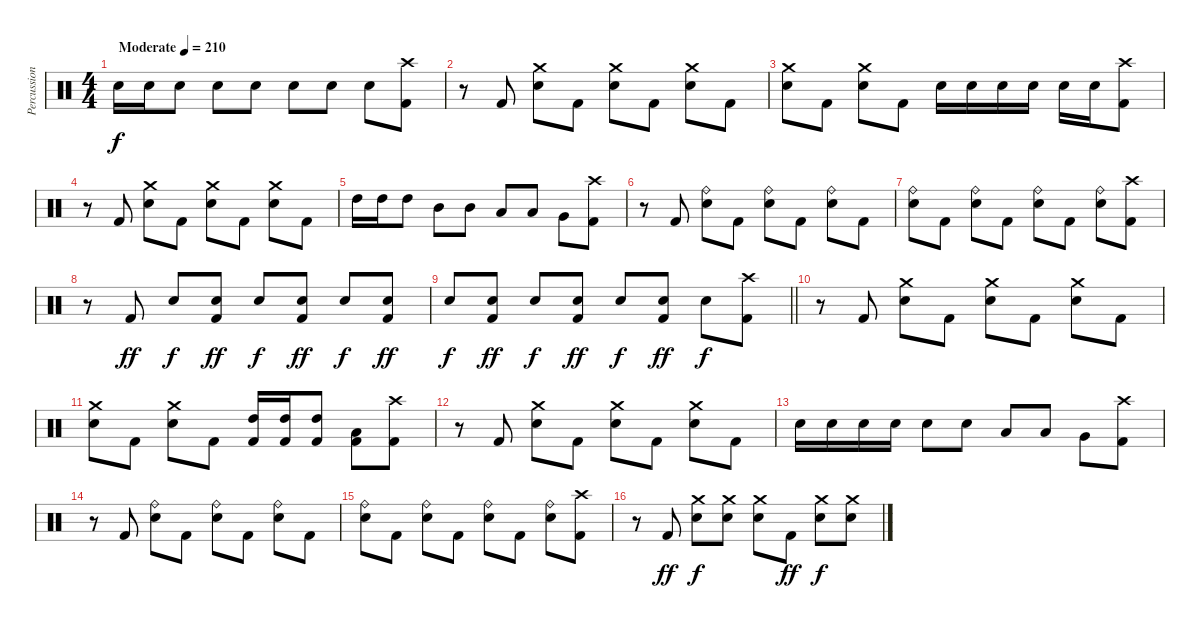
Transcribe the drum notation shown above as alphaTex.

\track ("Percussion" "Percussion") {instrument percussion}
\staff {score}
\articulation defaults
\ts (4 4)
\tempo (210 "Moderate")
\clef neutral
\ks c "Snare (hit) 2".16{dy f volume 7} "Snare (hit) 2".16 "Snare (hit) 2".8 "Snare (hit) 2".8 "Snare (hit) 2".8 "Snare (hit) 2".8 "Snare (hit) 2".8 "Snare (hit) 2".8
("Crash high (hit)" "Kick (hit) 2").8 |
r.8 "Kick (hit) 2".8 ("Crash medium (hit)" "Snare (hit) 2").8 "Kick (hit) 2".8 ("Crash medium (hit)" "Snare (hit) 2").8 "Kick (hit) 2".8 ("Crash medium (hit)" "Snare (hit) 2").8 "Kick (hit) 2".8 |
("Crash medium (hit)" "Snare (hit) 2").8 "Kick (hit) 2".8 ("Crash medium (hit)" "Snare (hit) 2").8 "Kick (hit) 2".8 "Snare (hit) 2".16 "Snare (hit) 2".16 "Snare (hit) 2".16 "Snare (hit) 2".16 "Snare (hit) 2".16 "Snare (hit) 2".16 ("Crash high (hit)" "Kick (hit) 2").8 |
r.8 "Kick (hit) 2".8 ("Crash medium (hit)" "Snare (hit) 2").8 "Kick (hit) 2".8 ("Crash medium (hit)" "Snare (hit) 2").8 "Kick (hit) 2".8 ("Crash medium (hit)" "Snare (hit) 2").8 "Kick (hit) 2".8 |
"High Tom (hit)".16 "High Tom (hit)".16 "High Tom (hit)".8 "Mid Tom (hit)".8 "Mid Tom (hit)".8 "Low Tom (hit)".8 "Low Tom (hit)".8 "Very Low Tom (hit)".8 ("Crash high (hit)" "Kick (hit) 2").8 |
r.8 "Kick (hit) 2".8 ("Ride (bell)" "Snare (hit) 2").8 "Kick (hit) 2".8 ("Ride (bell)" "Snare (hit) 2").8 "Kick (hit) 2".8 ("Ride (bell)" "Snare (hit) 2").8 "Kick (hit) 2".8 |
("Ride (bell)" "Snare (hit) 2").8 "Kick (hit) 2".8 ("Ride (bell)" "Snare (hit) 2").8 "Kick (hit) 2".8 ("Ride (bell)" "Snare (hit) 2").8 "Kick (hit) 2".8 ("Ride (bell)" "Snare (hit) 2").8 ("Crash high (hit)" "Kick (hit) 2").8 |
r.8 "Kick (hit) 2".8{dy ff} "Snare (hit) 2".8{dy f} ("Snare (hit) 2" "Kick (hit) 2").8{dy ff} "Snare (hit) 2".8{dy f} ("Snare (hit) 2" "Kick (hit) 2").8{dy ff} "Snare (hit) 2".8{dy f} ("Snare (hit) 2" "Kick (hit) 2").8{dy ff} |
\barLineRight lightlight "Snare (hit) 2".8{dy f}
("Snare (hit) 2" "Kick (hit) 2").8{dy ff} "Snare (hit) 2".8{dy f} ("Snare (hit) 2" "Kick (hit) 2").8{dy ff} "Snare (hit) 2".8{dy f} ("Snare (hit) 2" "Kick (hit) 2").8{dy ff} "Snare (hit) 2".8{dy f} ("Crash high (hit)" "Kick (hit) 2").8 |
\section ("" "")
r.8 "Kick (hit) 2".8 ("Crash medium (hit)" "Snare (hit) 2").8 "Kick (hit) 2".8 ("Crash medium (hit)" "Snare (hit) 2").8 "Kick (hit) 2".8 ("Crash medium (hit)" "Snare (hit) 2").8 "Kick (hit) 2".8 |
("Crash medium (hit)" "Snare (hit) 2").8 "Kick (hit) 2".8 ("Crash medium (hit)" "Snare (hit) 2").8 "Kick (hit) 2".8 ("High Tom (hit)" "Kick (hit) 2").16 ("High Tom (hit)" "Kick (hit) 2").16 ("High Tom (hit)" "Kick (hit) 2").8 ("Low Tom (hit)" "Kick (hit) 2").8 ("Crash high (hit)" "Kick (hit) 2").8 |
r.8 "Kick (hit) 2".8 ("Crash medium (hit)" "Snare (hit) 2").8 "Kick (hit) 2".8 ("Crash medium (hit)" "Snare (hit) 2").8 "Kick (hit) 2".8 ("Crash medium (hit)" "Snare (hit) 2").8 "Kick (hit) 2".8 |
"Snare (hit) 2".16 "Snare (hit) 2".16 "Snare (hit) 2".16 "Snare (hit) 2".16 "Snare (hit) 2".8 "Snare (hit) 2".8 "Low Tom (hit)".8 "Low Tom (hit)".8 "Very Low Tom (hit)".8 ("Crash high (hit)" "Kick (hit) 2").8 |
r.8 "Kick (hit) 2".8 ("Ride (bell)" "Snare (hit) 2").8 "Kick (hit) 2".8 ("Ride (bell)" "Snare (hit) 2").8 "Kick (hit) 2".8 ("Ride (bell)" "Snare (hit) 2").8 "Kick (hit) 2".8 |
("Ride (bell)" "Snare (hit) 2").8 "Kick (hit) 2".8 ("Ride (bell)" "Snare (hit) 2").8 "Kick (hit) 2".8 ("Ride (bell)" "Snare (hit) 2").8 "Kick (hit) 2".8 ("Ride (bell)" "Snare (hit) 2").8 ("Crash high (hit)" "Kick (hit) 2").8 |
r.8 "Kick (hit) 2".8{dy ff} ("Crash medium (hit)" "Snare (hit) 2").8{dy f} ("Crash medium (hit)" "Snare (hit) 2").8 ("Crash medium (hit)" "Snare (hit) 2").8 "Kick (hit) 2".8{dy ff} ("Crash medium (hit)" "Snare (hit) 2").8{dy f} ("Crash medium (hit)" "Snare (hit) 2").8
